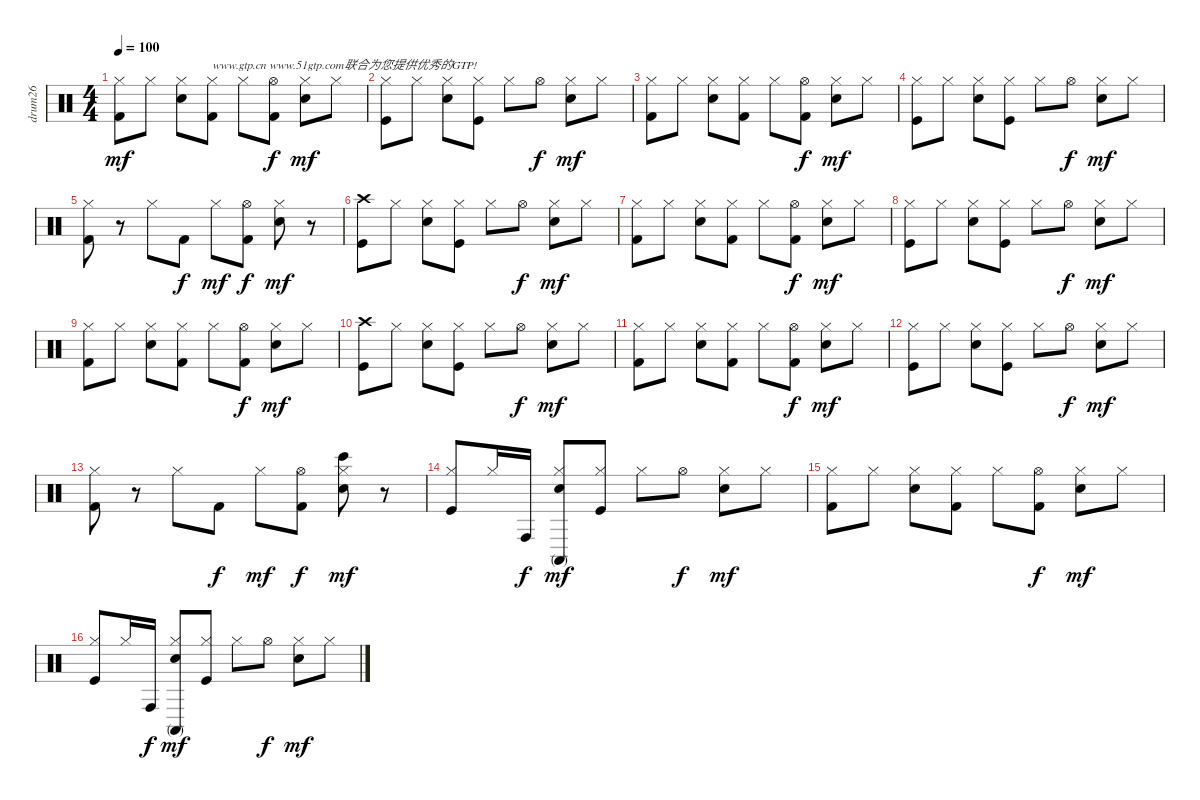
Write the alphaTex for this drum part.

\track ("drum26" "drum26") {instrument percussion}
\staff {score}
\articulation defaults
\ts (4 4)
\tempo 100
\clef neutral
\ks c
("Kick (hit) 2" "Hi-Hat (closed)").8{dy mf} "Hi-Hat (closed)".8 ("Electric Snare (hit)" "Hi-Hat (closed)").8 ("Hi-Hat (closed)" "Kick (hit) 2").8{txt "www.gtp.cn www.51gtp.com联合为您提供优秀的GTP!"} "Hi-Hat (closed)".8 ("Hi-Hat (open)" "Kick (hit) 2").8{dy f} ("Electric Snare (hit)" "Hi-Hat (closed)").8{dy mf} "Hi-Hat (closed)".8 |
("Hi-Hat (closed)" "Kick (hit)").8 "Hi-Hat (closed)".8 ("Electric Snare (hit)" "Hi-Hat (closed)").8 ("Kick (hit)" "Hi-Hat (closed)").8 "Hi-Hat (closed)".8 "Hi-Hat (open)".8{dy f} ("Hi-Hat (closed)" "Electric Snare (hit)").8{dy mf} "Hi-Hat (closed)".8 |
("Kick (hit) 2" "Hi-Hat (closed)").8 "Hi-Hat (closed)".8 ("Hi-Hat (closed)" "Electric Snare (hit)").8 ("Hi-Hat (closed)" "Kick (hit) 2").8 "Hi-Hat (closed)".8 ("Kick (hit) 2" "Hi-Hat (open)").8{dy f} ("Hi-Hat (closed)" "Electric Snare (hit)").8{dy mf} "Hi-Hat (closed)".8 |
("Kick (hit)" "Hi-Hat (closed)").8 "Hi-Hat (closed)".8 ("Electric Snare (hit)" "Hi-Hat (closed)").8 ("Hi-Hat (closed)" "Kick (hit)").8 "Hi-Hat (closed)".8 "Hi-Hat (open)".8{dy f} ("Electric Snare (hit)" "Hi-Hat (closed)").8{dy mf} "Hi-Hat (closed)".8 |
("Kick (hit) 2" "Hi-Hat (closed)").8 r.8 "Hi-Hat (closed)".8 "Kick (hit) 2".8{dy f} "Hi-Hat (closed)".8{dy mf} ("Hi-Hat (open)" "Kick (hit) 2").8{dy f} ("Electric Snare (hit)" "Hi-Hat (closed)").8{dy mf} r.8 |
("Crash high (hit)" "Kick (hit)").8 "Hi-Hat (closed)".8 ("Electric Snare (hit)" "Hi-Hat (closed)").8 ("Kick (hit)" "Hi-Hat (closed)").8 "Hi-Hat (closed)".8 "Hi-Hat (open)".8{dy f} ("Hi-Hat (closed)" "Electric Snare (hit)").8{dy mf} "Hi-Hat (closed)".8 |
("Hi-Hat (closed)" "Kick (hit) 2").8 "Hi-Hat (closed)".8 ("Electric Snare (hit)" "Hi-Hat (closed)").8 ("Kick (hit) 2" "Hi-Hat (closed)").8 "Hi-Hat (closed)".8 ("Kick (hit) 2" "Hi-Hat (open)").8{dy f} ("Hi-Hat (closed)" "Electric Snare (hit)").8{dy mf} "Hi-Hat (closed)".8 |
("Hi-Hat (closed)" "Kick (hit)").8 "Hi-Hat (closed)".8 ("Hi-Hat (closed)" "Electric Snare (hit)").8 ("Kick (hit)" "Hi-Hat (closed)").8 "Hi-Hat (closed)".8 "Hi-Hat (open)".8{dy f} ("Hi-Hat (closed)" "Electric Snare (hit)").8{dy mf} "Hi-Hat (closed)".8 |
("Kick (hit) 2" "Hi-Hat (closed)").8 "Hi-Hat (closed)".8 ("Hi-Hat (closed)" "Electric Snare (hit)").8 ("Kick (hit) 2" "Hi-Hat (closed)").8 "Hi-Hat (closed)".8 ("Kick (hit) 2" "Hi-Hat (open)").8{dy f} ("Hi-Hat (closed)" "Electric Snare (hit)").8{dy mf} "Hi-Hat (closed)".8 |
("Kick (hit)" "Crash high (hit)").8 "Hi-Hat (closed)".8 ("Electric Snare (hit)" "Hi-Hat (closed)").8 ("Kick (hit)" "Hi-Hat (closed)").8 "Hi-Hat (closed)".8 "Hi-Hat (open)".8{dy f} ("Electric Snare (hit)" "Hi-Hat (closed)").8{dy mf} "Hi-Hat (closed)".8 |
("Hi-Hat (closed)" "Kick (hit) 2").8 "Hi-Hat (closed)".8 ("Electric Snare (hit)" "Hi-Hat (closed)").8 ("Kick (hit) 2" "Hi-Hat (closed)").8 "Hi-Hat (closed)".8 ("Kick (hit) 2" "Hi-Hat (open)").8{dy f} ("Electric Snare (hit)" "Hi-Hat (closed)").8{dy mf} "Hi-Hat (closed)".8 |
("Kick (hit)" "Hi-Hat (closed)").8 "Hi-Hat (closed)".8 ("Hi-Hat (closed)" "Electric Snare (hit)").8 ("Kick (hit)" "Hi-Hat (closed)").8 "Hi-Hat (closed)".8 "Hi-Hat (open)".8{dy f} ("Electric Snare (hit)" "Hi-Hat (closed)").8{dy mf} "Hi-Hat (closed)".8 |
("Kick (hit) 2" "Hi-Hat (closed)").8 r.8 "Hi-Hat (closed)".8 "Kick (hit) 2".8{dy f} "Hi-Hat (closed)".8{dy mf} ("Kick (hit) 2" "Hi-Hat (open)").8{dy f} ("Electric Snare (hit)" "Hi-Hat (closed)" "Bongo High (hit)").8{dy mf} r.8 |
("Kick (hit)" "Hi-Hat (closed)").8 "Hi-Hat (closed)".16 "Conga high (hit)".16{dy f} ("Hi-Hat (closed)" "Electric Snare (hit)" "Conga high (mute)").8{dy mf} ("Kick (hit)" "Hi-Hat (closed)").8 "Hi-Hat (closed)".8 "Hi-Hat (open)".8{dy f} ("Electric Snare (hit)" "Hi-Hat (closed)").8{dy mf} "Hi-Hat (closed)".8 |
("Kick (hit) 2" "Hi-Hat (closed)").8 "Hi-Hat (closed)".8 ("Electric Snare (hit)" "Hi-Hat (closed)").8 ("Kick (hit) 2" "Hi-Hat (closed)").8 "Hi-Hat (closed)".8 ("Hi-Hat (open)" "Kick (hit) 2").8{dy f} ("Hi-Hat (closed)" "Electric Snare (hit)").8{dy mf} "Hi-Hat (closed)".8 |
("Kick (hit)" "Hi-Hat (closed)").8 "Hi-Hat (closed)".16 "Conga high (hit)".16{dy f} ("Electric Snare (hit)" "Hi-Hat (closed)" "Conga high (mute)").8{dy mf} ("Kick (hit)" "Hi-Hat (closed)").8 "Hi-Hat (closed)".8 "Hi-Hat (open)".8{dy f} ("Hi-Hat (closed)" "Electric Snare (hit)").8{dy mf} "Hi-Hat (closed)".8
